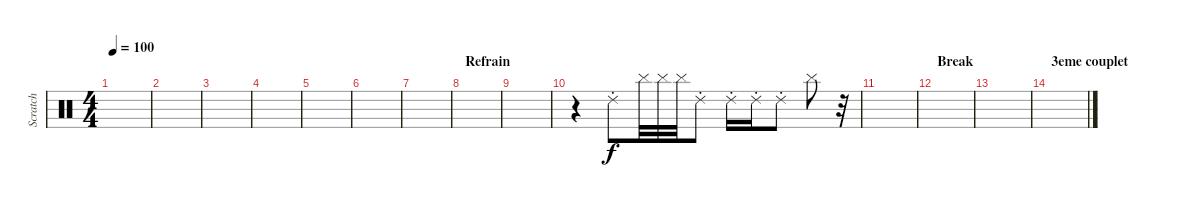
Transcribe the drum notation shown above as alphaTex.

\track ("Scratch" "Scratch") {instrument percussion}
\staff {score}
\articulation defaults
\ts (4 4)
\tempo 100
\clef neutral
\ks c
|
|
|
|
|
|
|
\section ("" "Refrain")
|
|
r.4 "Ride (choke) 2".8 "Cymbal (hit)".32 "Cymbal (hit)".32 "Cymbal (hit)".32 "Ride (choke) 2".8 "Ride (choke) 2".16 "Ride (choke) 2".16 "Ride (choke) 2".8 "Cymbal (hit)".8 r.32 |
|
\section ("" "Break")
|
|
\section ("" "3eme couplet")
